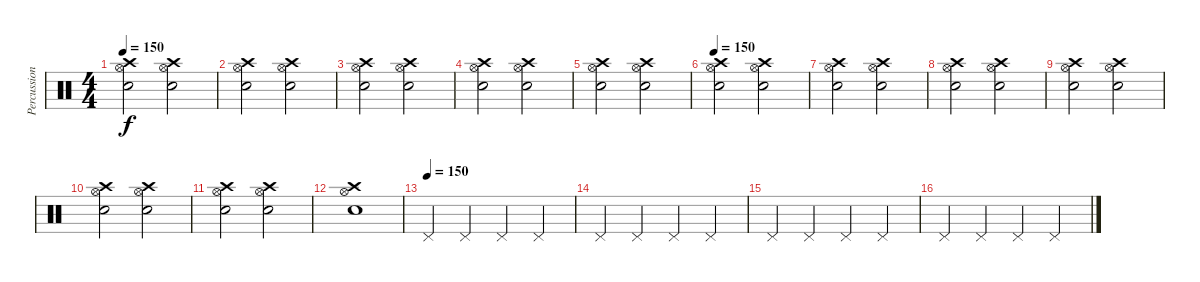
\track ("Percussion" "Percussion") {instrument percussion}
\staff {score}
\articulation defaults
\ts (4 4)
\tempo 150
\clef neutral
\ks c
("Crash high (hit)" "Snare (hit) 2" "Hi-Hat (open)").2{dy f} ("Crash high (hit)" "Snare (hit) 2" "Hi-Hat (open)").2 |
("Crash high (hit)" "Snare (hit) 2" "Hi-Hat (open)").2{volume 16} ("Crash high (hit)" "Snare (hit) 2" "Hi-Hat (open)").2 |
("Crash high (hit)" "Snare (hit) 2" "Hi-Hat (open)").2 ("Crash high (hit)" "Snare (hit) 2" "Hi-Hat (open)").2 |
("Crash high (hit)" "Snare (hit) 2" "Hi-Hat (open)").2{volume 16} ("Crash high (hit)" "Snare (hit) 2" "Hi-Hat (open)").2 |
("Crash high (hit)" "Snare (hit) 2" "Hi-Hat (open)").2 ("Crash high (hit)" "Snare (hit) 2" "Hi-Hat (open)").2 |
\tempo 150
("Crash high (hit)" "Snare (hit) 2" "Hi-Hat (open)").2{volume 16} ("Crash high (hit)" "Snare (hit) 2" "Hi-Hat (open)").2 |
("Crash high (hit)" "Snare (hit) 2" "Hi-Hat (open)").2 ("Crash high (hit)" "Snare (hit) 2" "Hi-Hat (open)").2 |
("Crash high (hit)" "Snare (hit) 2" "Hi-Hat (open)").2{volume 16} ("Crash high (hit)" "Snare (hit) 2" "Hi-Hat (open)").2 |
("Crash high (hit)" "Snare (hit) 2" "Hi-Hat (open)").2{volume 16} ("Crash high (hit)" "Snare (hit) 2" "Hi-Hat (open)").2 |
("Crash high (hit)" "Snare (hit) 2" "Hi-Hat (open)").2{volume 16} ("Crash high (hit)" "Snare (hit) 2" "Hi-Hat (open)").2 |
("Crash high (hit)" "Snare (hit) 2" "Hi-Hat (open)").2{volume 16} ("Crash high (hit)" "Snare (hit) 2" "Hi-Hat (open)").2 |
("Crash high (hit)" "Snare (hit) 2" "Hi-Hat (open)").1 |
\tempo (150)
"Pedal Hi-Hat (hit)".4 "Pedal Hi-Hat (hit)".4 "Pedal Hi-Hat (hit)".4 "Pedal Hi-Hat (hit)".4 |
"Pedal Hi-Hat (hit)".4 "Pedal Hi-Hat (hit)".4 "Pedal Hi-Hat (hit)".4 "Pedal Hi-Hat (hit)".4 |
"Pedal Hi-Hat (hit)".4 "Pedal Hi-Hat (hit)".4 "Pedal Hi-Hat (hit)".4 "Pedal Hi-Hat (hit)".4 |
"Pedal Hi-Hat (hit)".4 "Pedal Hi-Hat (hit)".4 "Pedal Hi-Hat (hit)".4 "Pedal Hi-Hat (hit)".4
